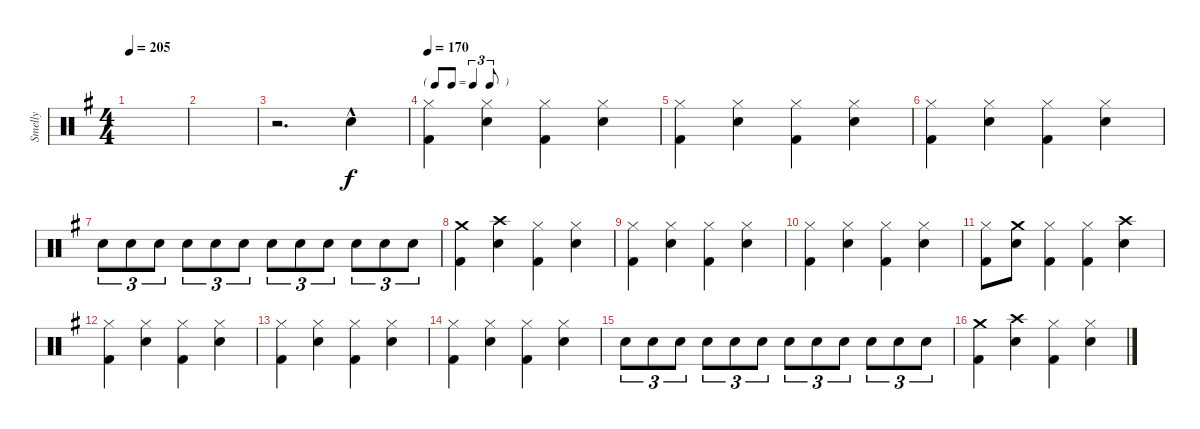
\track ("Smelly" "Smelly") {instrument percussion}
\staff {score}
\articulation defaults
\ts (4 4)
\tempo 205
\clef neutral
\ks eminor
|
|
r.2{d volume 16} "Electric Snare (hit)"{hac}.4 |
\tf triplet8th
\tempo 170
("Hi-Hat (closed)" "Kick (hit) 2").4 ("Hi-Hat (closed)" "Electric Snare (hit)").4 ("Hi-Hat (closed)" "Kick (hit) 2").4 ("Hi-Hat (closed)" "Electric Snare (hit)").4 |
("Hi-Hat (closed)" "Kick (hit) 2").4 ("Hi-Hat (closed)" "Electric Snare (hit)").4 ("Hi-Hat (closed)" "Kick (hit) 2").4 ("Hi-Hat (closed)" "Electric Snare (hit)").4 |
("Hi-Hat (closed)" "Kick (hit) 2").4 ("Hi-Hat (closed)" "Electric Snare (hit)").4 ("Hi-Hat (closed)" "Kick (hit) 2").4 ("Hi-Hat (closed)" "Electric Snare (hit)").4 |
"Electric Snare (hit)".8{tu (3 2)} "Electric Snare (hit)".8{tu (3 2)} "Electric Snare (hit)".8{tu (3 2)} "Electric Snare (hit)".8{tu (3 2)} "Electric Snare (hit)".8{tu (3 2)} "Electric Snare (hit)".8{tu (3 2)} "Electric Snare (hit)".8{tu (3 2)} "Electric Snare (hit)".8{tu (3 2)} "Electric Snare (hit)".8{tu (3 2)} "Electric Snare (hit)".8{tu (3 2)} "Electric Snare (hit)".8{tu (3 2)} "Electric Snare (hit)".8{tu (3 2)} |
("Crash medium (hit)" "Kick (hit) 2").4 ("Crash high (hit)" "Electric Snare (hit)").4 ("Hi-Hat (closed)" "Kick (hit) 2").4 ("Hi-Hat (closed)" "Electric Snare (hit)").4 |
("Hi-Hat (closed)" "Kick (hit) 2").4 ("Hi-Hat (closed)" "Electric Snare (hit)").4 ("Hi-Hat (closed)" "Kick (hit) 2").4 ("Hi-Hat (closed)" "Electric Snare (hit)").4 |
("Hi-Hat (closed)" "Kick (hit) 2").4 ("Hi-Hat (closed)" "Electric Snare (hit)").4 ("Hi-Hat (closed)" "Kick (hit) 2").4 ("Hi-Hat (closed)" "Electric Snare (hit)").4 |
("Hi-Hat (closed)" "Kick (hit) 2").8 ("Crash medium (hit)" "Electric Snare (hit)").8 ("Hi-Hat (closed)" "Kick (hit) 2").4 ("Hi-Hat (closed)" "Kick (hit) 2").4 ("Crash high (hit)" "Electric Snare (hit)").4 |
("Hi-Hat (closed)" "Kick (hit) 2").4 ("Hi-Hat (closed)" "Electric Snare (hit)").4 ("Hi-Hat (closed)" "Kick (hit) 2").4 ("Hi-Hat (closed)" "Electric Snare (hit)").4 |
("Hi-Hat (closed)" "Kick (hit) 2").4 ("Hi-Hat (closed)" "Electric Snare (hit)").4 ("Hi-Hat (closed)" "Kick (hit) 2").4 ("Hi-Hat (closed)" "Electric Snare (hit)").4 |
("Hi-Hat (closed)" "Kick (hit) 2").4 ("Hi-Hat (closed)" "Electric Snare (hit)").4 ("Hi-Hat (closed)" "Kick (hit) 2").4 ("Hi-Hat (closed)" "Electric Snare (hit)").4 |
"Electric Snare (hit)".8{tu (3 2)} "Electric Snare (hit)".8{tu (3 2)} "Electric Snare (hit)".8{tu (3 2)} "Electric Snare (hit)".8{tu (3 2)} "Electric Snare (hit)".8{tu (3 2)} "Electric Snare (hit)".8{tu (3 2)} "Electric Snare (hit)".8{tu (3 2)} "Electric Snare (hit)".8{tu (3 2)} "Electric Snare (hit)".8{tu (3 2)} "Electric Snare (hit)".8{tu (3 2)} "Electric Snare (hit)".8{tu (3 2)} "Electric Snare (hit)".8{tu (3 2)} |
("Crash medium (hit)" "Kick (hit) 2").4 ("Crash high (hit)" "Electric Snare (hit)").4 ("Hi-Hat (closed)" "Kick (hit) 2").4 ("Hi-Hat (closed)" "Electric Snare (hit)").4
